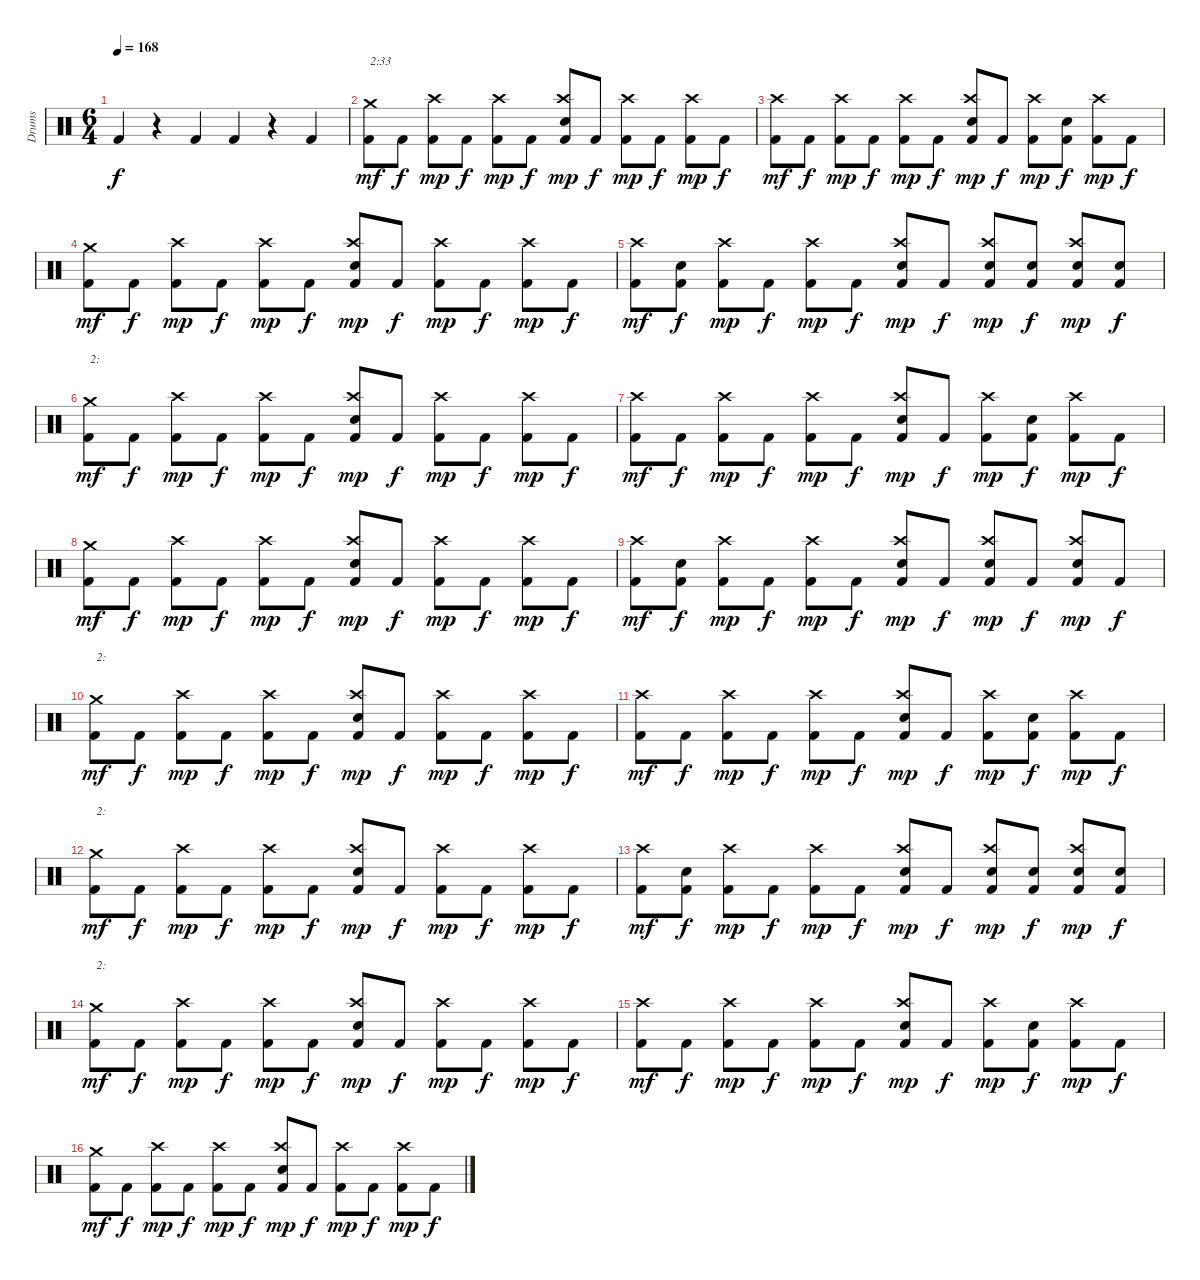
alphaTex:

\track ("Drums" "Drums") {instrument percussion}
\staff {score}
\articulation defaults
\ts (6 4)
\tempo 168
\clef neutral
\ks c "Kick (hit) 2".4{dy f}
r.4 "Kick (hit) 2".4 "Kick (hit) 2".4 r.4 "Kick (hit) 2".4 |
("Kick (hit) 2" "Crash medium (hit)").8{txt "2:33" dy mf} "Kick (hit) 2".8{dy f} ("Kick (hit) 2" "Crash high (hit)").8{dy mp} "Kick (hit) 2".8{dy f} ("Kick (hit) 2" "Crash high (hit)").8{dy mp} "Kick (hit) 2".8{dy f} ("Kick (hit) 2" "Electric Snare (hit)" "Crash high (hit)").8{dy mp} "Kick (hit) 2".8{dy f} ("Kick (hit) 2" "Crash high (hit)").8{dy mp} "Kick (hit) 2".8{dy f} ("Kick (hit) 2" "Crash high (hit)").8{dy mp} "Kick (hit) 2".8{dy f} |
("Kick (hit) 2" "Crash high (hit)").8{dy mf} "Kick (hit) 2".8{dy f} ("Kick (hit) 2" "Crash high (hit)").8{dy mp} "Kick (hit) 2".8{dy f} ("Kick (hit) 2" "Crash high (hit)").8{dy mp} "Kick (hit) 2".8{dy f} ("Kick (hit) 2" "Electric Snare (hit)" "Crash high (hit)").8{dy mp} "Kick (hit) 2".8{dy f} ("Kick (hit) 2" "Crash high (hit)").8{dy mp} ("Kick (hit) 2" "Electric Snare (hit)").8{dy f} ("Kick (hit) 2" "Crash high (hit)").8{dy mp} "Kick (hit) 2".8{dy f} |
("Kick (hit) 2" "Crash medium (hit)").8{dy mf} "Kick (hit) 2".8{dy f} ("Kick (hit) 2" "Crash high (hit)").8{dy mp} "Kick (hit) 2".8{dy f} ("Kick (hit) 2" "Crash high (hit)").8{dy mp} "Kick (hit) 2".8{dy f} ("Kick (hit) 2" "Electric Snare (hit)" "Crash high (hit)").8{dy mp} "Kick (hit) 2".8{dy f} ("Kick (hit) 2" "Crash high (hit)").8{dy mp} "Kick (hit) 2".8{dy f} ("Kick (hit) 2" "Crash high (hit)").8{dy mp} "Kick (hit) 2".8{dy f} |
("Kick (hit) 2" "Crash high (hit)").8{dy mf} ("Kick (hit) 2" "Electric Snare (hit)").8{dy f} ("Kick (hit) 2" "Crash high (hit)").8{dy mp} "Kick (hit) 2".8{dy f} ("Kick (hit) 2" "Crash high (hit)").8{dy mp} "Kick (hit) 2".8{dy f} ("Kick (hit) 2" "Electric Snare (hit)" "Crash high (hit)").8{dy mp} "Kick (hit) 2".8{dy f} ("Kick (hit) 2" "Electric Snare (hit)" "Crash high (hit)").8{dy mp} ("Kick (hit) 2" "Electric Snare (hit)").8{dy f} ("Kick (hit) 2" "Electric Snare (hit)" "Crash high (hit)").8{dy mp} ("Kick (hit) 2" "Electric Snare (hit)").8{dy f} |
("Kick (hit) 2" "Crash medium (hit)").8{txt "2:" dy mf} "Kick (hit) 2".8{dy f} ("Kick (hit) 2" "Crash high (hit)").8{dy mp} "Kick (hit) 2".8{dy f} ("Kick (hit) 2" "Crash high (hit)").8{dy mp} "Kick (hit) 2".8{dy f} ("Kick (hit) 2" "Electric Snare (hit)" "Crash high (hit)").8{dy mp} "Kick (hit) 2".8{dy f} ("Kick (hit) 2" "Crash high (hit)").8{dy mp} "Kick (hit) 2".8{dy f} ("Kick (hit) 2" "Crash high (hit)").8{dy mp} "Kick (hit) 2".8{dy f} |
("Kick (hit) 2" "Crash high (hit)").8{dy mf} "Kick (hit) 2".8{dy f} ("Kick (hit) 2" "Crash high (hit)").8{dy mp} "Kick (hit) 2".8{dy f} ("Kick (hit) 2" "Crash high (hit)").8{dy mp} "Kick (hit) 2".8{dy f} ("Kick (hit) 2" "Electric Snare (hit)" "Crash high (hit)").8{dy mp} "Kick (hit) 2".8{dy f} ("Kick (hit) 2" "Crash high (hit)").8{dy mp} ("Kick (hit) 2" "Electric Snare (hit)").8{dy f} ("Kick (hit) 2" "Crash high (hit)").8{dy mp} "Kick (hit) 2".8{dy f} |
("Kick (hit) 2" "Crash medium (hit)").8{dy mf} "Kick (hit) 2".8{dy f} ("Kick (hit) 2" "Crash high (hit)").8{dy mp} "Kick (hit) 2".8{dy f} ("Kick (hit) 2" "Crash high (hit)").8{dy mp} "Kick (hit) 2".8{dy f} ("Kick (hit) 2" "Electric Snare (hit)" "Crash high (hit)").8{dy mp} "Kick (hit) 2".8{dy f} ("Kick (hit) 2" "Crash high (hit)").8{dy mp} "Kick (hit) 2".8{dy f} ("Kick (hit) 2" "Crash high (hit)").8{dy mp} "Kick (hit) 2".8{dy f} |
("Kick (hit) 2" "Crash high (hit)").8{dy mf} ("Kick (hit) 2" "Electric Snare (hit)").8{dy f} ("Kick (hit) 2" "Crash high (hit)").8{dy mp} "Kick (hit) 2".8{dy f} ("Kick (hit) 2" "Crash high (hit)").8{dy mp} "Kick (hit) 2".8{dy f} ("Kick (hit) 2" "Electric Snare (hit)" "Crash high (hit)").8{dy mp} "Kick (hit) 2".8{dy f} ("Kick (hit) 2" "Electric Snare (hit)" "Crash high (hit)").8{dy mp} "Kick (hit) 2".8{dy f} ("Kick (hit) 2" "Electric Snare (hit)" "Crash high (hit)").8{dy mp} "Kick (hit) 2".8{dy f} |
("Kick (hit) 2" "Crash medium (hit)").8{txt "2:" dy mf} "Kick (hit) 2".8{dy f} ("Kick (hit) 2" "Crash high (hit)").8{dy mp} "Kick (hit) 2".8{dy f} ("Kick (hit) 2" "Crash high (hit)").8{dy mp} "Kick (hit) 2".8{dy f} ("Kick (hit) 2" "Electric Snare (hit)" "Crash high (hit)").8{dy mp} "Kick (hit) 2".8{dy f} ("Kick (hit) 2" "Crash high (hit)").8{dy mp} "Kick (hit) 2".8{dy f} ("Kick (hit) 2" "Crash high (hit)").8{dy mp} "Kick (hit) 2".8{dy f} |
("Kick (hit) 2" "Crash high (hit)").8{dy mf} "Kick (hit) 2".8{dy f} ("Kick (hit) 2" "Crash high (hit)").8{dy mp} "Kick (hit) 2".8{dy f} ("Kick (hit) 2" "Crash high (hit)").8{dy mp} "Kick (hit) 2".8{dy f} ("Kick (hit) 2" "Electric Snare (hit)" "Crash high (hit)").8{dy mp} "Kick (hit) 2".8{dy f} ("Kick (hit) 2" "Crash high (hit)").8{dy mp} ("Kick (hit) 2" "Electric Snare (hit)").8{dy f} ("Kick (hit) 2" "Crash high (hit)").8{dy mp} "Kick (hit) 2".8{dy f} |
("Kick (hit) 2" "Crash medium (hit)").8{txt "2:" dy mf} "Kick (hit) 2".8{dy f} ("Kick (hit) 2" "Crash high (hit)").8{dy mp} "Kick (hit) 2".8{dy f} ("Kick (hit) 2" "Crash high (hit)").8{dy mp} "Kick (hit) 2".8{dy f} ("Kick (hit) 2" "Electric Snare (hit)" "Crash high (hit)").8{dy mp} "Kick (hit) 2".8{dy f} ("Kick (hit) 2" "Crash high (hit)").8{dy mp} "Kick (hit) 2".8{dy f} ("Kick (hit) 2" "Crash high (hit)").8{dy mp} "Kick (hit) 2".8{dy f} |
("Kick (hit) 2" "Crash high (hit)").8{dy mf} ("Kick (hit) 2" "Electric Snare (hit)").8{dy f} ("Kick (hit) 2" "Crash high (hit)").8{dy mp} "Kick (hit) 2".8{dy f} ("Kick (hit) 2" "Crash high (hit)").8{dy mp} "Kick (hit) 2".8{dy f} ("Kick (hit) 2" "Electric Snare (hit)" "Crash high (hit)").8{dy mp} "Kick (hit) 2".8{dy f} ("Kick (hit) 2" "Electric Snare (hit)" "Crash high (hit)").8{dy mp} ("Kick (hit) 2" "Electric Snare (hit)").8{dy f} ("Kick (hit) 2" "Electric Snare (hit)" "Crash high (hit)").8{dy mp} ("Kick (hit) 2" "Electric Snare (hit)").8{dy f} |
("Kick (hit) 2" "Crash medium (hit)").8{txt "2:" dy mf} "Kick (hit) 2".8{dy f} ("Kick (hit) 2" "Crash high (hit)").8{dy mp} "Kick (hit) 2".8{dy f} ("Kick (hit) 2" "Crash high (hit)").8{dy mp} "Kick (hit) 2".8{dy f} ("Kick (hit) 2" "Electric Snare (hit)" "Crash high (hit)").8{dy mp} "Kick (hit) 2".8{dy f} ("Kick (hit) 2" "Crash high (hit)").8{dy mp} "Kick (hit) 2".8{dy f} ("Kick (hit) 2" "Crash high (hit)").8{dy mp} "Kick (hit) 2".8{dy f} |
("Kick (hit) 2" "Crash high (hit)").8{dy mf} "Kick (hit) 2".8{dy f} ("Kick (hit) 2" "Crash high (hit)").8{dy mp} "Kick (hit) 2".8{dy f} ("Kick (hit) 2" "Crash high (hit)").8{dy mp} "Kick (hit) 2".8{dy f} ("Kick (hit) 2" "Electric Snare (hit)" "Crash high (hit)").8{dy mp} "Kick (hit) 2".8{dy f} ("Kick (hit) 2" "Crash high (hit)").8{dy mp} ("Kick (hit) 2" "Electric Snare (hit)").8{dy f} ("Kick (hit) 2" "Crash high (hit)").8{dy mp} "Kick (hit) 2".8{dy f} |
("Kick (hit) 2" "Crash medium (hit)").8{dy mf} "Kick (hit) 2".8{dy f} ("Kick (hit) 2" "Crash high (hit)").8{dy mp} "Kick (hit) 2".8{dy f} ("Kick (hit) 2" "Crash high (hit)").8{dy mp} "Kick (hit) 2".8{dy f} ("Kick (hit) 2" "Electric Snare (hit)" "Crash high (hit)").8{dy mp} "Kick (hit) 2".8{dy f} ("Kick (hit) 2" "Crash high (hit)").8{dy mp} "Kick (hit) 2".8{dy f} ("Kick (hit) 2" "Crash high (hit)").8{dy mp} "Kick (hit) 2".8{dy f}
